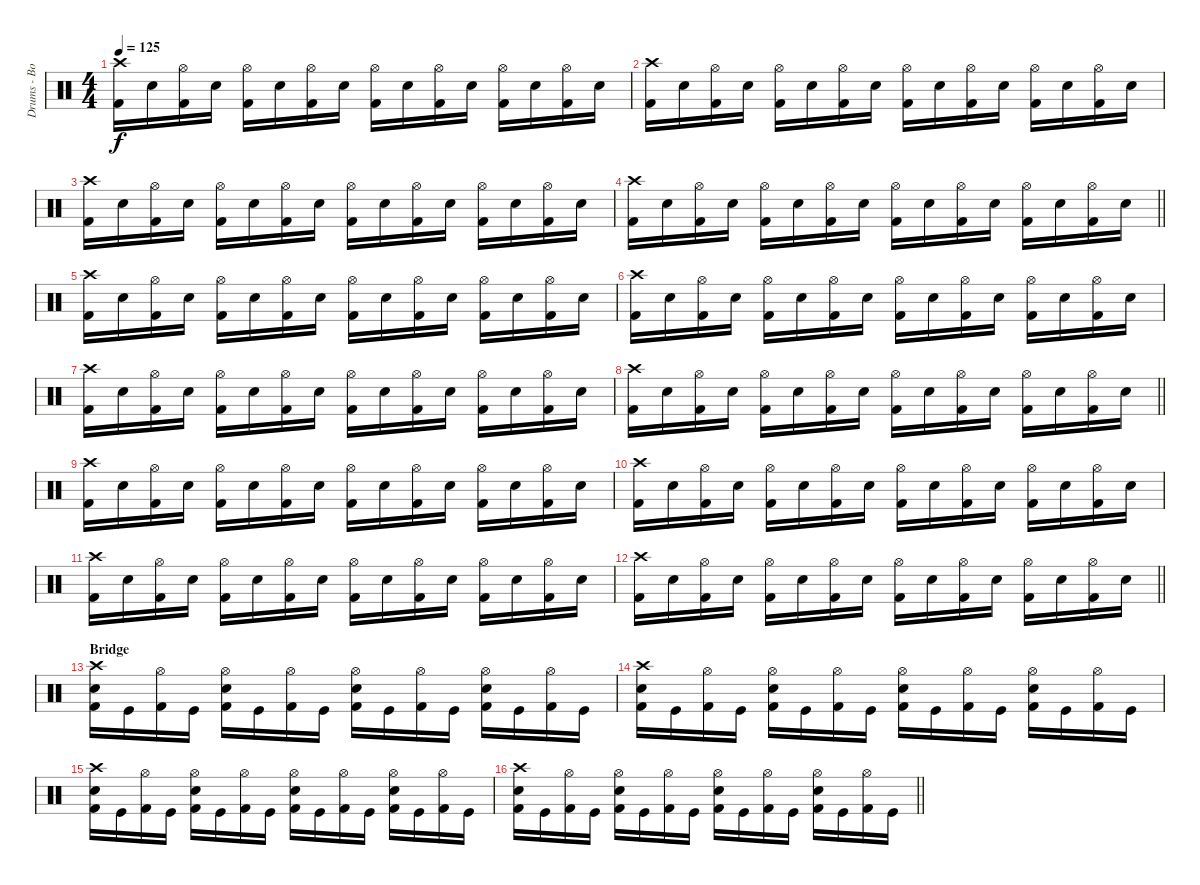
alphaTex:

\track ("Drums - Bobby Schottkowski" "Drums - Bo") {instrument percussion}
\staff {score}
\articulation defaults
\ts (4 4)
\tempo 125
\clef neutral
\ks c
("Kick (hit) 2" "Crash high (hit)").16{dy f} "Snare (hit) 2".16 ("Kick (hit) 2" "Hi-Hat (open)").16 "Snare (hit) 2".16 ("Kick (hit) 2" "Hi-Hat (open)").16 "Snare (hit) 2".16 ("Kick (hit) 2" "Hi-Hat (open)").16 "Snare (hit) 2".16 ("Kick (hit) 2" "Hi-Hat (open)").16 "Snare (hit) 2".16 ("Kick (hit) 2" "Hi-Hat (open)").16 "Snare (hit) 2".16 ("Kick (hit) 2" "Hi-Hat (open)").16 "Snare (hit) 2".16 ("Kick (hit) 2" "Hi-Hat (open)").16 "Snare (hit) 2".16 |
("Kick (hit) 2" "Crash high (hit)").16 "Snare (hit) 2".16 ("Kick (hit) 2" "Hi-Hat (open)").16 "Snare (hit) 2".16 ("Kick (hit) 2" "Hi-Hat (open)").16 "Snare (hit) 2".16 ("Kick (hit) 2" "Hi-Hat (open)").16 "Snare (hit) 2".16 ("Kick (hit) 2" "Hi-Hat (open)").16 "Snare (hit) 2".16 ("Kick (hit) 2" "Hi-Hat (open)").16 "Snare (hit) 2".16 ("Kick (hit) 2" "Hi-Hat (open)").16 "Snare (hit) 2".16 ("Kick (hit) 2" "Hi-Hat (open)").16 "Snare (hit) 2".16 |
("Kick (hit) 2" "Crash high (hit)").16 "Snare (hit) 2".16 ("Kick (hit) 2" "Hi-Hat (open)").16 "Snare (hit) 2".16 ("Kick (hit) 2" "Hi-Hat (open)").16 "Snare (hit) 2".16 ("Kick (hit) 2" "Hi-Hat (open)").16 "Snare (hit) 2".16 ("Kick (hit) 2" "Hi-Hat (open)").16 "Snare (hit) 2".16 ("Kick (hit) 2" "Hi-Hat (open)").16 "Snare (hit) 2".16 ("Kick (hit) 2" "Hi-Hat (open)").16 "Snare (hit) 2".16 ("Kick (hit) 2" "Hi-Hat (open)").16 "Snare (hit) 2".16 |
\barLineRight lightlight
("Kick (hit) 2" "Crash high (hit)").16 "Snare (hit) 2".16 ("Kick (hit) 2" "Hi-Hat (open)").16 "Snare (hit) 2".16 ("Kick (hit) 2" "Hi-Hat (open)").16 "Snare (hit) 2".16 ("Kick (hit) 2" "Hi-Hat (open)").16 "Snare (hit) 2".16 ("Kick (hit) 2" "Hi-Hat (open)").16 "Snare (hit) 2".16 ("Kick (hit) 2" "Hi-Hat (open)").16 "Snare (hit) 2".16 ("Kick (hit) 2" "Hi-Hat (open)").16 "Snare (hit) 2".16 ("Kick (hit) 2" "Hi-Hat (open)").16 "Snare (hit) 2".16 |
("Kick (hit) 2" "Crash high (hit)").16 "Snare (hit) 2".16 ("Kick (hit) 2" "Hi-Hat (open)").16 "Snare (hit) 2".16 ("Kick (hit) 2" "Hi-Hat (open)").16 "Snare (hit) 2".16 ("Kick (hit) 2" "Hi-Hat (open)").16 "Snare (hit) 2".16 ("Kick (hit) 2" "Hi-Hat (open)").16 "Snare (hit) 2".16 ("Kick (hit) 2" "Hi-Hat (open)").16 "Snare (hit) 2".16 ("Kick (hit) 2" "Hi-Hat (open)").16 "Snare (hit) 2".16 ("Kick (hit) 2" "Hi-Hat (open)").16 "Snare (hit) 2".16 |
("Kick (hit) 2" "Crash high (hit)").16 "Snare (hit) 2".16 ("Kick (hit) 2" "Hi-Hat (open)").16 "Snare (hit) 2".16 ("Kick (hit) 2" "Hi-Hat (open)").16 "Snare (hit) 2".16 ("Kick (hit) 2" "Hi-Hat (open)").16 "Snare (hit) 2".16 ("Kick (hit) 2" "Hi-Hat (open)").16 "Snare (hit) 2".16 ("Kick (hit) 2" "Hi-Hat (open)").16 "Snare (hit) 2".16 ("Kick (hit) 2" "Hi-Hat (open)").16 "Snare (hit) 2".16 ("Kick (hit) 2" "Hi-Hat (open)").16 "Snare (hit) 2".16 |
("Kick (hit) 2" "Crash high (hit)").16 "Snare (hit) 2".16 ("Kick (hit) 2" "Hi-Hat (open)").16 "Snare (hit) 2".16 ("Kick (hit) 2" "Hi-Hat (open)").16 "Snare (hit) 2".16 ("Kick (hit) 2" "Hi-Hat (open)").16 "Snare (hit) 2".16 ("Kick (hit) 2" "Hi-Hat (open)").16 "Snare (hit) 2".16 ("Kick (hit) 2" "Hi-Hat (open)").16 "Snare (hit) 2".16 ("Kick (hit) 2" "Hi-Hat (open)").16 "Snare (hit) 2".16 ("Kick (hit) 2" "Hi-Hat (open)").16 "Snare (hit) 2".16 |
\barLineRight lightlight
("Kick (hit) 2" "Crash high (hit)").16 "Snare (hit) 2".16 ("Kick (hit) 2" "Hi-Hat (open)").16 "Snare (hit) 2".16 ("Kick (hit) 2" "Hi-Hat (open)").16 "Snare (hit) 2".16 ("Kick (hit) 2" "Hi-Hat (open)").16 "Snare (hit) 2".16 ("Kick (hit) 2" "Hi-Hat (open)").16 "Snare (hit) 2".16 ("Kick (hit) 2" "Hi-Hat (open)").16 "Snare (hit) 2".16 ("Kick (hit) 2" "Hi-Hat (open)").16 "Snare (hit) 2".16 ("Kick (hit) 2" "Hi-Hat (open)").16 "Snare (hit) 2".16 |
("Kick (hit) 2" "Crash high (hit)").16 "Snare (hit) 2".16 ("Kick (hit) 2" "Hi-Hat (open)").16 "Snare (hit) 2".16 ("Kick (hit) 2" "Hi-Hat (open)").16 "Snare (hit) 2".16 ("Kick (hit) 2" "Hi-Hat (open)").16 "Snare (hit) 2".16 ("Kick (hit) 2" "Hi-Hat (open)").16 "Snare (hit) 2".16 ("Kick (hit) 2" "Hi-Hat (open)").16 "Snare (hit) 2".16 ("Kick (hit) 2" "Hi-Hat (open)").16 "Snare (hit) 2".16 ("Kick (hit) 2" "Hi-Hat (open)").16 "Snare (hit) 2".16 |
("Kick (hit) 2" "Crash high (hit)").16 "Snare (hit) 2".16 ("Kick (hit) 2" "Hi-Hat (open)").16 "Snare (hit) 2".16 ("Kick (hit) 2" "Hi-Hat (open)").16 "Snare (hit) 2".16 ("Kick (hit) 2" "Hi-Hat (open)").16 "Snare (hit) 2".16 ("Kick (hit) 2" "Hi-Hat (open)").16 "Snare (hit) 2".16 ("Kick (hit) 2" "Hi-Hat (open)").16 "Snare (hit) 2".16 ("Kick (hit) 2" "Hi-Hat (open)").16 "Snare (hit) 2".16 ("Kick (hit) 2" "Hi-Hat (open)").16 "Snare (hit) 2".16 |
("Kick (hit) 2" "Crash high (hit)").16 "Snare (hit) 2".16 ("Kick (hit) 2" "Hi-Hat (open)").16 "Snare (hit) 2".16 ("Kick (hit) 2" "Hi-Hat (open)").16 "Snare (hit) 2".16 ("Kick (hit) 2" "Hi-Hat (open)").16 "Snare (hit) 2".16 ("Kick (hit) 2" "Hi-Hat (open)").16 "Snare (hit) 2".16 ("Kick (hit) 2" "Hi-Hat (open)").16 "Snare (hit) 2".16 ("Kick (hit) 2" "Hi-Hat (open)").16 "Snare (hit) 2".16 ("Kick (hit) 2" "Hi-Hat (open)").16 "Snare (hit) 2".16 |
\barLineRight lightlight
("Kick (hit) 2" "Crash high (hit)").16 "Snare (hit) 2".16 ("Kick (hit) 2" "Hi-Hat (open)").16 "Snare (hit) 2".16 ("Kick (hit) 2" "Hi-Hat (open)").16 "Snare (hit) 2".16 ("Kick (hit) 2" "Hi-Hat (open)").16 "Snare (hit) 2".16 ("Kick (hit) 2" "Hi-Hat (open)").16 "Snare (hit) 2".16 ("Kick (hit) 2" "Hi-Hat (open)").16 "Snare (hit) 2".16 ("Kick (hit) 2" "Hi-Hat (open)").16 "Snare (hit) 2".16 ("Kick (hit) 2" "Hi-Hat (open)").16 "Snare (hit) 2".16 |
\section ("" "Bridge")
("Kick (hit) 2" "Snare (hit) 2" "Crash high (hit)").16 "Kick (hit)".16 ("Kick (hit) 2" "Hi-Hat (open)").16 "Kick (hit)".16 ("Kick (hit) 2" "Snare (hit) 2" "Hi-Hat (open)").16 "Kick (hit)".16 ("Kick (hit) 2" "Hi-Hat (open)").16 "Kick (hit)".16 ("Kick (hit) 2" "Snare (hit) 2" "Hi-Hat (open)").16 "Kick (hit)".16 ("Kick (hit) 2" "Hi-Hat (open)").16 "Kick (hit)".16 ("Kick (hit) 2" "Snare (hit) 2" "Hi-Hat (open)").16 "Kick (hit)".16 ("Kick (hit) 2" "Hi-Hat (open)").16 "Kick (hit)".16 |
("Kick (hit) 2" "Snare (hit) 2" "Crash high (hit)").16 "Kick (hit)".16 ("Kick (hit) 2" "Hi-Hat (open)").16 "Kick (hit)".16 ("Kick (hit) 2" "Snare (hit) 2" "Hi-Hat (open)").16 "Kick (hit)".16 ("Kick (hit) 2" "Hi-Hat (open)").16 "Kick (hit)".16 ("Kick (hit) 2" "Snare (hit) 2" "Hi-Hat (open)").16 "Kick (hit)".16 ("Kick (hit) 2" "Hi-Hat (open)").16 "Kick (hit)".16 ("Kick (hit) 2" "Snare (hit) 2" "Hi-Hat (open)").16 "Kick (hit)".16 ("Kick (hit) 2" "Hi-Hat (open)").16 "Kick (hit)".16 |
("Kick (hit) 2" "Snare (hit) 2" "Crash high (hit)").16 "Kick (hit)".16 ("Kick (hit) 2" "Hi-Hat (open)").16 "Kick (hit)".16 ("Kick (hit) 2" "Snare (hit) 2" "Hi-Hat (open)").16 "Kick (hit)".16 ("Kick (hit) 2" "Hi-Hat (open)").16 "Kick (hit)".16 ("Kick (hit) 2" "Snare (hit) 2" "Hi-Hat (open)").16 "Kick (hit)".16 ("Kick (hit) 2" "Hi-Hat (open)").16 "Kick (hit)".16 ("Kick (hit) 2" "Snare (hit) 2" "Hi-Hat (open)").16 "Kick (hit)".16 ("Kick (hit) 2" "Hi-Hat (open)").16 "Kick (hit)".16 |
\barLineRight lightlight
("Kick (hit) 2" "Snare (hit) 2" "Crash high (hit)").16 "Kick (hit)".16 ("Kick (hit) 2" "Hi-Hat (open)").16 "Kick (hit)".16 ("Kick (hit) 2" "Snare (hit) 2" "Hi-Hat (open)").16 "Kick (hit)".16 ("Kick (hit) 2" "Hi-Hat (open)").16 "Kick (hit)".16 ("Kick (hit) 2" "Snare (hit) 2" "Hi-Hat (open)").16 "Kick (hit)".16 ("Kick (hit) 2" "Hi-Hat (open)").16 "Kick (hit)".16 ("Kick (hit) 2" "Snare (hit) 2" "Hi-Hat (open)").16 "Kick (hit)".16 ("Kick (hit) 2" "Hi-Hat (open)").16 "Kick (hit)".16
